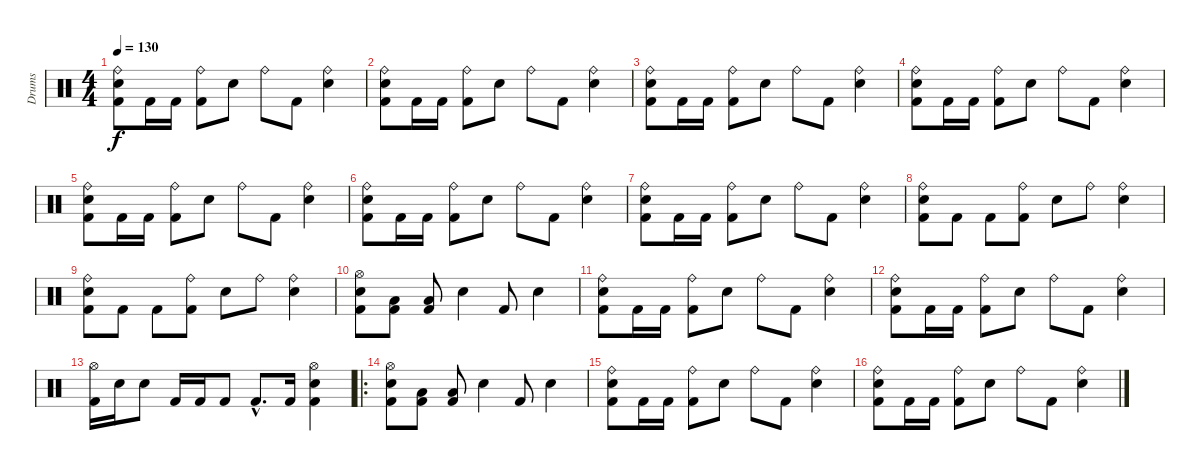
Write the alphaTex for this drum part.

\track ("Drums" "Drums") {instrument percussion}
\staff {score}
\articulation defaults
\ts (4 4)
\tempo 130
\clef neutral
\ks c
("Ride (bell)" "Electric Snare (hit)" "Kick (hit) 2").8{dy f} "Kick (hit) 2".16 "Kick (hit) 2".16 ("Ride (bell)" "Kick (hit) 2").8 "Electric Snare (hit)".8 "Ride (bell)".8 "Kick (hit) 2".8 ("Ride (bell)" "Electric Snare (hit)").4 |
("Ride (bell)" "Electric Snare (hit)" "Kick (hit) 2").8 "Kick (hit) 2".16 "Kick (hit) 2".16 ("Ride (bell)" "Kick (hit) 2").8 "Electric Snare (hit)".8 "Ride (bell)".8 "Kick (hit) 2".8 ("Ride (bell)" "Electric Snare (hit)").4 |
("Ride (bell)" "Electric Snare (hit)" "Kick (hit) 2").8 "Kick (hit) 2".16 "Kick (hit) 2".16 ("Ride (bell)" "Kick (hit) 2").8 "Electric Snare (hit)".8 "Ride (bell)".8 "Kick (hit) 2".8 ("Ride (bell)" "Electric Snare (hit)").4 |
("Ride (bell)" "Electric Snare (hit)" "Kick (hit) 2").8 "Kick (hit) 2".16 "Kick (hit) 2".16 ("Ride (bell)" "Kick (hit) 2").8 "Electric Snare (hit)".8 "Ride (bell)".8 "Kick (hit) 2".8 ("Ride (bell)" "Electric Snare (hit)").4 |
("Ride (bell)" "Electric Snare (hit)" "Kick (hit) 2").8 "Kick (hit) 2".16 "Kick (hit) 2".16 ("Ride (bell)" "Kick (hit) 2").8 "Electric Snare (hit)".8 "Ride (bell)".8 "Kick (hit) 2".8 ("Ride (bell)" "Electric Snare (hit)").4 |
("Ride (bell)" "Electric Snare (hit)" "Kick (hit) 2").8 "Kick (hit) 2".16 "Kick (hit) 2".16 ("Ride (bell)" "Kick (hit) 2").8 "Electric Snare (hit)".8 "Ride (bell)".8 "Kick (hit) 2".8 ("Ride (bell)" "Electric Snare (hit)").4 |
("Ride (bell)" "Electric Snare (hit)" "Kick (hit) 2").8 "Kick (hit) 2".16 "Kick (hit) 2".16 ("Ride (bell)" "Kick (hit) 2").8 "Electric Snare (hit)".8 "Ride (bell)".8 "Kick (hit) 2".8 ("Ride (bell)" "Electric Snare (hit)").4 |
("Ride (bell)" "Electric Snare (hit)" "Kick (hit) 2").8 "Kick (hit) 2".8 "Kick (hit) 2".8 ("Ride (bell)" "Kick (hit) 2").8 "Electric Snare (hit)".8 "Ride (bell)".8 ("Ride (bell)" "Electric Snare (hit)").4 |
("Ride (bell)" "Electric Snare (hit)" "Kick (hit) 2").8 "Kick (hit) 2".8 "Kick (hit) 2".8 ("Ride (bell)" "Kick (hit) 2").8 "Electric Snare (hit)".8 "Ride (bell)".8 ("Ride (bell)" "Electric Snare (hit)").4 |
("Hi-Hat (open)" "Electric Snare (hit)" "Kick (hit) 2").8 ("Low Floor Tom (hit)" "Kick (hit) 2").8 ("Low Floor Tom (hit)" "Kick (hit) 2").8 "Electric Snare (hit)".4 "Kick (hit) 2".8 "Electric Snare (hit)".4 |
("Ride (bell)" "Electric Snare (hit)" "Kick (hit) 2").8 "Kick (hit) 2".16 "Kick (hit) 2".16 ("Ride (bell)" "Kick (hit) 2").8 "Electric Snare (hit)".8 "Ride (bell)".8 "Kick (hit) 2".8 ("Ride (bell)" "Electric Snare (hit)").4 |
("Ride (bell)" "Electric Snare (hit)" "Kick (hit) 2").8 "Kick (hit) 2".16 "Kick (hit) 2".16 ("Ride (bell)" "Kick (hit) 2").8 "Electric Snare (hit)".8 "Ride (bell)".8 "Kick (hit) 2".8 ("Ride (bell)" "Electric Snare (hit)").4 |
("Hi-Hat (open)" "Kick (hit) 2").16 "Electric Snare (hit)".16 "Electric Snare (hit)".8 "Kick (hit) 2".16 "Kick (hit) 2".16 "Kick (hit) 2".8 "Kick (hit) 2"{hac}.8{d} "Kick (hit) 2".16 ("Hi-Hat (open)" "Kick (hit) 2" "Electric Snare (hit)").4 |
\ro
("Hi-Hat (open)" "Electric Snare (hit)" "Kick (hit) 2").8 ("Low Floor Tom (hit)" "Kick (hit) 2").8 ("Low Floor Tom (hit)" "Kick (hit) 2").8 "Electric Snare (hit)".4 "Kick (hit) 2".8 "Electric Snare (hit)".4 |
("Ride (bell)" "Electric Snare (hit)" "Kick (hit) 2").8 "Kick (hit) 2".16 "Kick (hit) 2".16 ("Ride (bell)" "Kick (hit) 2").8 "Electric Snare (hit)".8 "Ride (bell)".8 "Kick (hit) 2".8 ("Ride (bell)" "Electric Snare (hit)").4 |
("Ride (bell)" "Electric Snare (hit)" "Kick (hit) 2").8 "Kick (hit) 2".16 "Kick (hit) 2".16 ("Ride (bell)" "Kick (hit) 2").8 "Electric Snare (hit)".8 "Ride (bell)".8 "Kick (hit) 2".8 ("Ride (bell)" "Electric Snare (hit)").4
